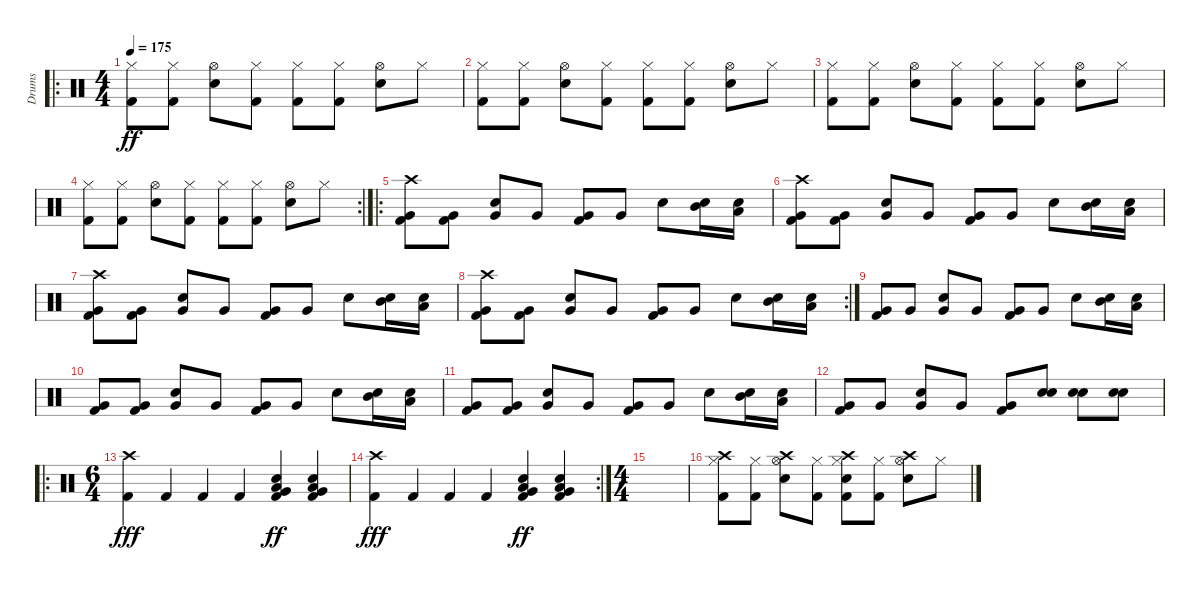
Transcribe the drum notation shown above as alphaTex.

\track ("Drums" "Drums") {instrument percussion}
\staff {score}
\articulation defaults
\ro
\ts (4 4)
\tempo 175
\clef neutral
\ks c
("Hi-Hat (closed)" "Kick (hit) 2").8{dy ff} ("Hi-Hat (closed)" "Kick (hit) 2").8 ("Hi-Hat (open)" "Snare (hit) 2").8 ("Hi-Hat (closed)" "Kick (hit) 2").8 ("Hi-Hat (closed)" "Kick (hit) 2").8 ("Hi-Hat (closed)" "Kick (hit) 2").8 ("Hi-Hat (open)" "Snare (hit) 2").8 "Hi-Hat (closed)".8 |
("Hi-Hat (closed)" "Kick (hit) 2").8 ("Hi-Hat (closed)" "Kick (hit) 2").8 ("Hi-Hat (open)" "Snare (hit) 2").8 ("Hi-Hat (closed)" "Kick (hit) 2").8 ("Hi-Hat (closed)" "Kick (hit) 2").8 ("Hi-Hat (closed)" "Kick (hit) 2").8 ("Hi-Hat (open)" "Snare (hit) 2").8 "Hi-Hat (closed)".8 |
("Hi-Hat (closed)" "Kick (hit) 2").8 ("Hi-Hat (closed)" "Kick (hit) 2").8 ("Hi-Hat (open)" "Snare (hit) 2").8 ("Hi-Hat (closed)" "Kick (hit) 2").8 ("Hi-Hat (closed)" "Kick (hit) 2").8 ("Hi-Hat (closed)" "Kick (hit) 2").8 ("Hi-Hat (open)" "Snare (hit) 2").8 "Hi-Hat (closed)".8 |
\rc 2
("Hi-Hat (closed)" "Kick (hit) 2").8 ("Hi-Hat (closed)" "Kick (hit) 2").8 ("Hi-Hat (open)" "Snare (hit) 2").8 ("Hi-Hat (closed)" "Kick (hit) 2").8 ("Hi-Hat (closed)" "Kick (hit) 2").8 ("Hi-Hat (closed)" "Kick (hit) 2").8 ("Hi-Hat (open)" "Snare (hit) 2").8 "Hi-Hat (closed)".8 |
\ro
("Very Low Tom (hit)" "Crash high (hit)" "Kick (hit) 2").8 ("Very Low Tom (hit)" "Kick (hit) 2").8 ("Very Low Tom (hit)" "Snare (hit) 2").8 "Very Low Tom (hit)".8 ("Very Low Tom (hit)" "Kick (hit) 2").8 "Very Low Tom (hit)".8 "Snare (hit) 2".8 ("Mid Tom (hit)" "Snare (hit) 2").16 ("Low Tom (hit)" "Snare (hit) 2").16 |
("Very Low Tom (hit)" "Crash high (hit)" "Kick (hit) 2").8 ("Very Low Tom (hit)" "Kick (hit) 2").8 ("Very Low Tom (hit)" "Snare (hit) 2").8 "Very Low Tom (hit)".8 ("Very Low Tom (hit)" "Kick (hit) 2").8 "Very Low Tom (hit)".8 "Snare (hit) 2".8 ("Mid Tom (hit)" "Snare (hit) 2").16 ("Low Tom (hit)" "Snare (hit) 2").16 |
("Very Low Tom (hit)" "Crash high (hit)" "Kick (hit) 2").8 ("Very Low Tom (hit)" "Kick (hit) 2").8 ("Very Low Tom (hit)" "Snare (hit) 2").8 "Very Low Tom (hit)".8 ("Very Low Tom (hit)" "Kick (hit) 2").8 "Very Low Tom (hit)".8 "Snare (hit) 2".8 ("Mid Tom (hit)" "Snare (hit) 2").16 ("Low Tom (hit)" "Snare (hit) 2").16 |
\rc 2
("Very Low Tom (hit)" "Crash high (hit)" "Kick (hit) 2").8 ("Very Low Tom (hit)" "Kick (hit) 2").8 ("Very Low Tom (hit)" "Snare (hit) 2").8 "Very Low Tom (hit)".8 ("Very Low Tom (hit)" "Kick (hit) 2").8 "Very Low Tom (hit)".8 "Snare (hit) 2".8 ("Mid Tom (hit)" "Snare (hit) 2").16 ("Low Tom (hit)" "Snare (hit) 2").16 |
("Very Low Tom (hit)" "Kick (hit) 2").8 "Very Low Tom (hit)".8 ("Very Low Tom (hit)" "Snare (hit) 2").8 "Very Low Tom (hit)".8 ("Very Low Tom (hit)" "Kick (hit) 2").8 "Very Low Tom (hit)".8 "Snare (hit) 2".8 ("Mid Tom (hit)" "Snare (hit) 2").16 ("Low Tom (hit)" "Snare (hit) 2").16 |
("Very Low Tom (hit)" "Kick (hit) 2").8 ("Very Low Tom (hit)" "Kick (hit) 2").8 ("Very Low Tom (hit)" "Snare (hit) 2").8 "Very Low Tom (hit)".8 ("Very Low Tom (hit)" "Kick (hit) 2").8 "Very Low Tom (hit)".8 "Snare (hit) 2".8 ("Mid Tom (hit)" "Snare (hit) 2").16 ("Low Tom (hit)" "Snare (hit) 2").16 |
("Very Low Tom (hit)" "Kick (hit) 2").8 ("Very Low Tom (hit)" "Kick (hit) 2").8 ("Very Low Tom (hit)" "Snare (hit) 2").8 "Very Low Tom (hit)".8 ("Very Low Tom (hit)" "Kick (hit) 2").8 "Very Low Tom (hit)".8 "Snare (hit) 2".8 ("Mid Tom (hit)" "Snare (hit) 2").16 ("Low Tom (hit)" "Snare (hit) 2").16 |
("Very Low Tom (hit)" "Kick (hit) 2").8 "Very Low Tom (hit)".8 ("Very Low Tom (hit)" "Snare (hit) 2").8 "Very Low Tom (hit)".8 ("Very Low Tom (hit)" "Kick (hit) 2").8 ("Snare (hit) 2" "Snare (hit) 2").8 ("Snare (hit) 2" "Snare (hit) 2").8 ("Snare (hit) 2" "Snare (hit) 2").8 |
\ro
\ts (6 4)
("Crash high (hit)" "Kick (hit) 2").4{dy fff} "Kick (hit) 2".4 "Kick (hit) 2".4 "Kick (hit) 2".4 ("Low Floor Tom (hit)" "Very Low Tom (hit)" "Snare (hit) 2" "Kick (hit) 2").4{dy ff} ("Low Floor Tom (hit)" "Very Low Tom (hit)" "Snare (hit) 2" "Kick (hit) 2").4 |
\rc 2
("Crash high (hit)" "Kick (hit) 2").4{dy fff} "Kick (hit) 2".4 "Kick (hit) 2".4 "Kick (hit) 2".4 ("Low Floor Tom (hit)" "Very Low Tom (hit)" "Snare (hit) 2" "Kick (hit) 2").4{dy ff} ("Low Floor Tom (hit)" "Very Low Tom (hit)" "Snare (hit) 2" "Kick (hit) 2").4 |
\ts (4 4)
|
("Crash high (hit)" "Hi-Hat (closed)" "Kick (hit) 2").8 ("Hi-Hat (closed)" "Kick (hit) 2").8 ("Crash high (hit)" "Hi-Hat (open)" "Snare (hit) 2").8 ("Hi-Hat (closed)" "Kick (hit) 2").8 ("Crash high (hit)" "Hi-Hat (closed)" "Snare (hit) 2" "Kick (hit) 2").8 ("Hi-Hat (closed)" "Kick (hit) 2").8 ("Crash high (hit)" "Hi-Hat (open)" "Snare (hit) 2").8 "Hi-Hat (closed)".8
